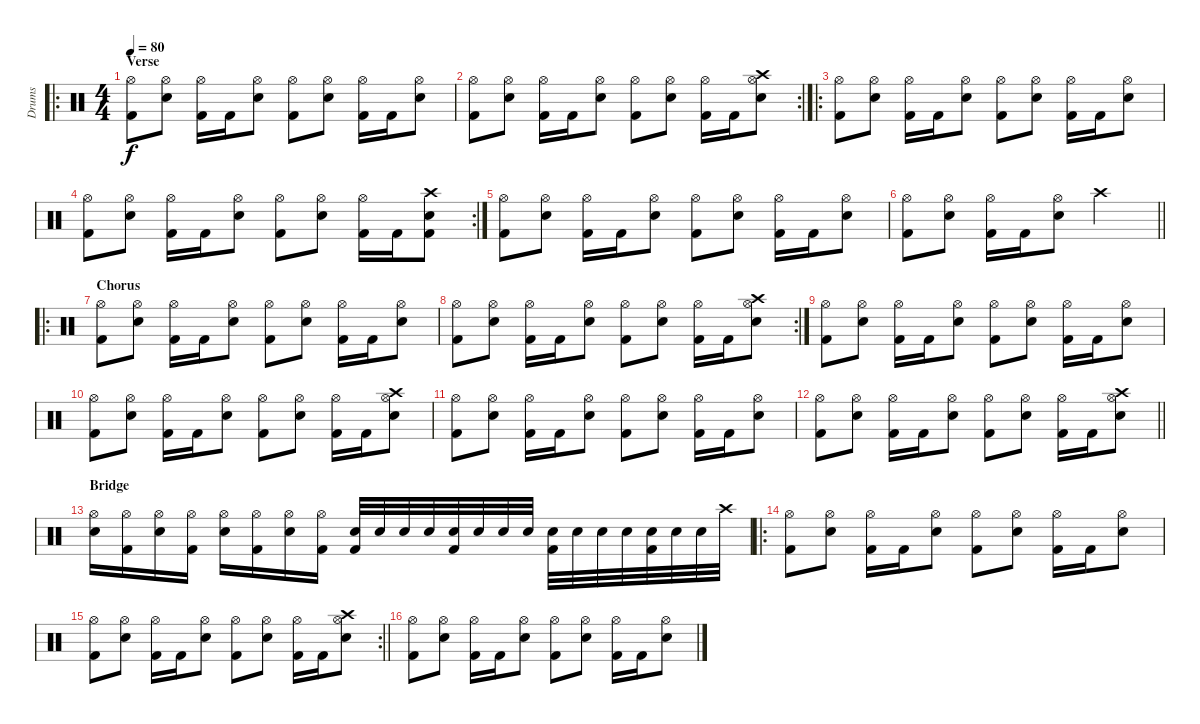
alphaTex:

\track ("Drums" "Drums") {instrument percussion}
\staff {score}
\articulation defaults
\ro
\ts (4 4)
\section ("" "Verse")
\tempo 80
\clef neutral
\ks c
("Kick (hit) 2" "Hi-Hat (open)").8{dy f} ("Snare (hit) 2" "Hi-Hat (open)").8 ("Kick (hit) 2" "Hi-Hat (open)").16 "Kick (hit) 2".16 ("Snare (hit) 2" "Hi-Hat (open)").8 ("Kick (hit) 2" "Hi-Hat (open)").8 ("Snare (hit) 2" "Hi-Hat (open)").8 ("Kick (hit) 2" "Hi-Hat (open)").16 "Kick (hit) 2".16 ("Snare (hit) 2" "Hi-Hat (open)").8 |
\rc 2
("Kick (hit) 2" "Hi-Hat (open)").8 ("Snare (hit) 2" "Hi-Hat (open)").8 ("Kick (hit) 2" "Hi-Hat (open)").16 "Kick (hit) 2".16 ("Snare (hit) 2" "Hi-Hat (open)").8 ("Kick (hit) 2" "Hi-Hat (open)").8 ("Snare (hit) 2" "Hi-Hat (open)").8 ("Kick (hit) 2" "Hi-Hat (open)").16 "Kick (hit) 2".16 ("Snare (hit) 2" "Hi-Hat (open)" "Crash high (hit)").8 |
\ro
("Kick (hit) 2" "Hi-Hat (open)").8 ("Snare (hit) 2" "Hi-Hat (open)").8 ("Kick (hit) 2" "Hi-Hat (open)").16 "Kick (hit) 2".16 ("Snare (hit) 2" "Hi-Hat (open)").8 ("Kick (hit) 2" "Hi-Hat (open)").8 ("Snare (hit) 2" "Hi-Hat (open)").8 ("Kick (hit) 2" "Hi-Hat (open)").16 "Kick (hit) 2".16 ("Snare (hit) 2" "Hi-Hat (open)").8 |
\rc 2
("Kick (hit) 2" "Hi-Hat (open)").8 ("Snare (hit) 2" "Hi-Hat (open)").8 ("Kick (hit) 2" "Hi-Hat (open)").16 "Kick (hit) 2".16 ("Snare (hit) 2" "Hi-Hat (open)").8 ("Kick (hit) 2" "Hi-Hat (open)").8 ("Snare (hit) 2" "Hi-Hat (open)").8 ("Kick (hit) 2" "Hi-Hat (open)").16 "Kick (hit) 2".16 ("Snare (hit) 2" "Kick (hit) 2" "Crash high (hit)").8 |
("Kick (hit) 2" "Hi-Hat (open)").8 ("Snare (hit) 2" "Hi-Hat (open)").8 ("Kick (hit) 2" "Hi-Hat (open)").16 "Kick (hit) 2".16 ("Snare (hit) 2" "Hi-Hat (open)").8 ("Kick (hit) 2" "Hi-Hat (open)").8 ("Snare (hit) 2" "Hi-Hat (open)").8 ("Kick (hit) 2" "Hi-Hat (open)").16 "Kick (hit) 2".16 ("Snare (hit) 2" "Hi-Hat (open)").8 |
\barLineRight lightlight
("Kick (hit) 2" "Hi-Hat (open)").8 ("Snare (hit) 2" "Hi-Hat (open)").8 ("Kick (hit) 2" "Hi-Hat (open)").16 "Kick (hit) 2".16 ("Snare (hit) 2" "Hi-Hat (open)").8 "Crash high (hit)".2 |
\ro
\section ("" "Chorus")
("Kick (hit) 2" "Hi-Hat (open)").8 ("Snare (hit) 2" "Hi-Hat (open)").8 ("Kick (hit) 2" "Hi-Hat (open)").16 "Kick (hit) 2".16 ("Snare (hit) 2" "Hi-Hat (open)").8 ("Kick (hit) 2" "Hi-Hat (open)").8 ("Snare (hit) 2" "Hi-Hat (open)").8 ("Kick (hit) 2" "Hi-Hat (open)").16 "Kick (hit) 2".16 ("Snare (hit) 2" "Hi-Hat (open)").8 |
\rc 2
("Kick (hit) 2" "Hi-Hat (open)").8 ("Snare (hit) 2" "Hi-Hat (open)").8 ("Kick (hit) 2" "Hi-Hat (open)").16 "Kick (hit) 2".16 ("Snare (hit) 2" "Hi-Hat (open)").8 ("Kick (hit) 2" "Hi-Hat (open)").8 ("Snare (hit) 2" "Hi-Hat (open)").8 ("Kick (hit) 2" "Hi-Hat (open)").16 "Kick (hit) 2".16 ("Snare (hit) 2" "Hi-Hat (open)" "Crash high (hit)").8 |
("Kick (hit) 2" "Hi-Hat (open)").8 ("Snare (hit) 2" "Hi-Hat (open)").8 ("Kick (hit) 2" "Hi-Hat (open)").16 "Kick (hit) 2".16 ("Snare (hit) 2" "Hi-Hat (open)").8 ("Kick (hit) 2" "Hi-Hat (open)").8 ("Snare (hit) 2" "Hi-Hat (open)").8 ("Kick (hit) 2" "Hi-Hat (open)").16 "Kick (hit) 2".16 ("Snare (hit) 2" "Hi-Hat (open)").8 |
("Kick (hit) 2" "Hi-Hat (open)").8 ("Snare (hit) 2" "Hi-Hat (open)").8 ("Kick (hit) 2" "Hi-Hat (open)").16 "Kick (hit) 2".16 ("Snare (hit) 2" "Hi-Hat (open)").8 ("Kick (hit) 2" "Hi-Hat (open)").8 ("Snare (hit) 2" "Hi-Hat (open)").8 ("Kick (hit) 2" "Hi-Hat (open)").16 "Kick (hit) 2".16 ("Snare (hit) 2" "Hi-Hat (open)" "Crash high (hit)").8 |
("Kick (hit) 2" "Hi-Hat (open)").8 ("Snare (hit) 2" "Hi-Hat (open)").8 ("Kick (hit) 2" "Hi-Hat (open)").16 "Kick (hit) 2".16 ("Snare (hit) 2" "Hi-Hat (open)").8 ("Kick (hit) 2" "Hi-Hat (open)").8 ("Snare (hit) 2" "Hi-Hat (open)").8 ("Kick (hit) 2" "Hi-Hat (open)").16 "Kick (hit) 2".16 ("Snare (hit) 2" "Hi-Hat (open)").8 |
\barLineRight lightlight
("Kick (hit) 2" "Hi-Hat (open)").8 ("Snare (hit) 2" "Hi-Hat (open)").8 ("Kick (hit) 2" "Hi-Hat (open)").16 "Kick (hit) 2".16 ("Snare (hit) 2" "Hi-Hat (open)").8 ("Kick (hit) 2" "Hi-Hat (open)").8 ("Snare (hit) 2" "Hi-Hat (open)").8 ("Kick (hit) 2" "Hi-Hat (open)").16 "Kick (hit) 2".16 ("Snare (hit) 2" "Hi-Hat (open)" "Crash high (hit)").8 |
\section ("" "Bridge")
("Snare (hit) 2" "Hi-Hat (open)").16 ("Kick (hit) 2" "Hi-Hat (open)").16 ("Snare (hit) 2" "Hi-Hat (open)").16 ("Kick (hit) 2" "Hi-Hat (open)").16 ("Snare (hit) 2" "Hi-Hat (open)").16 ("Kick (hit) 2" "Hi-Hat (open)").16 ("Snare (hit) 2" "Hi-Hat (open)").16 ("Kick (hit) 2" "Hi-Hat (open)").16 ("Snare (hit) 2" "Kick (hit) 2").32 "Snare (hit) 2".32 "Snare (hit) 2".32 "Snare (hit) 2".32 ("Snare (hit) 2" "Kick (hit) 2").32 "Snare (hit) 2".32 "Snare (hit) 2".32 "Snare (hit) 2".32 ("Snare (hit) 2" "Kick (hit) 2").32 "Snare (hit) 2".32 "Snare (hit) 2".32 "Snare (hit) 2".32 ("Snare (hit) 2" "Kick (hit) 2").32 "Snare (hit) 2".32 "Snare (hit) 2".32 "Crash high (hit)".32 |
\ro
("Kick (hit) 2" "Hi-Hat (open)").8 ("Snare (hit) 2" "Hi-Hat (open)").8 ("Kick (hit) 2" "Hi-Hat (open)").16 "Kick (hit) 2".16 ("Snare (hit) 2" "Hi-Hat (open)").8 ("Kick (hit) 2" "Hi-Hat (open)").8 ("Snare (hit) 2" "Hi-Hat (open)").8 ("Kick (hit) 2" "Hi-Hat (open)").16 "Kick (hit) 2".16 ("Snare (hit) 2" "Hi-Hat (open)").8 |
\rc 2
\barLineRight lightlight
("Kick (hit) 2" "Hi-Hat (open)").8 ("Snare (hit) 2" "Hi-Hat (open)").8 ("Kick (hit) 2" "Hi-Hat (open)").16 "Kick (hit) 2".16 ("Snare (hit) 2" "Hi-Hat (open)").8 ("Kick (hit) 2" "Hi-Hat (open)").8 ("Snare (hit) 2" "Hi-Hat (open)").8 ("Kick (hit) 2" "Hi-Hat (open)").16 "Kick (hit) 2".16 ("Snare (hit) 2" "Hi-Hat (open)" "Crash high (hit)").8 |
("Kick (hit) 2" "Hi-Hat (open)").8 ("Snare (hit) 2" "Hi-Hat (open)").8 ("Kick (hit) 2" "Hi-Hat (open)").16 "Kick (hit) 2".16 ("Snare (hit) 2" "Hi-Hat (open)").8 ("Kick (hit) 2" "Hi-Hat (open)").8 ("Snare (hit) 2" "Hi-Hat (open)").8 ("Kick (hit) 2" "Hi-Hat (open)").16 "Kick (hit) 2".16 ("Snare (hit) 2" "Hi-Hat (open)").8
